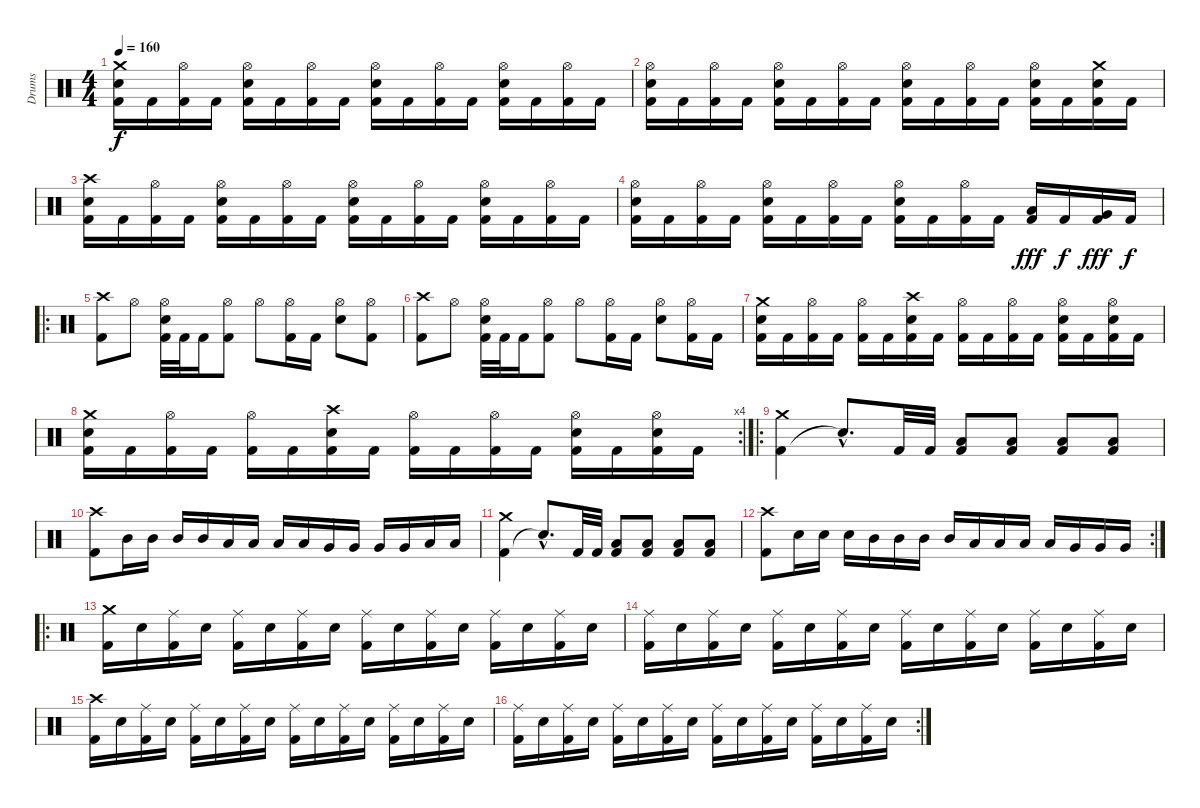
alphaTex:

\track ("Drums" "Drums") {instrument percussion}
\staff {score}
\articulation defaults
\ts (4 4)
\tempo 160
\clef neutral
\ks c
("Kick (hit) 2" "Electric Snare (hit)" "Crash medium (hit)").16{dy f} "Kick (hit) 2".16 ("Kick (hit) 2" "Hi-Hat (open)").16 "Kick (hit) 2".16 ("Kick (hit) 2" "Electric Snare (hit)" "Hi-Hat (open)").16 "Kick (hit) 2".16 ("Kick (hit) 2" "Hi-Hat (open)").16 "Kick (hit) 2".16 ("Kick (hit) 2" "Electric Snare (hit)" "Hi-Hat (open)").16 "Kick (hit) 2".16 ("Kick (hit) 2" "Hi-Hat (open)").16 "Kick (hit) 2".16 ("Kick (hit) 2" "Electric Snare (hit)" "Hi-Hat (open)").16 "Kick (hit) 2".16 ("Kick (hit) 2" "Hi-Hat (open)").16 "Kick (hit) 2".16 |
("Kick (hit) 2" "Electric Snare (hit)" "Hi-Hat (open)").16 "Kick (hit) 2".16 ("Kick (hit) 2" "Hi-Hat (open)").16 "Kick (hit) 2".16 ("Kick (hit) 2" "Electric Snare (hit)" "Hi-Hat (open)").16 "Kick (hit) 2".16 ("Kick (hit) 2" "Hi-Hat (open)").16 "Kick (hit) 2".16 ("Kick (hit) 2" "Electric Snare (hit)" "Hi-Hat (open)").16 "Kick (hit) 2".16 ("Kick (hit) 2" "Hi-Hat (open)").16 "Kick (hit) 2".16 ("Kick (hit) 2" "Electric Snare (hit)" "Hi-Hat (open)").16 "Kick (hit) 2".16 ("Kick (hit) 2" "Electric Snare (hit)" "Crash medium (hit)").16 "Kick (hit) 2".16 |
("Kick (hit) 2" "Electric Snare (hit)" "Crash high (hit)").16 "Kick (hit) 2".16 ("Kick (hit) 2" "Hi-Hat (open)").16 "Kick (hit) 2".16 ("Kick (hit) 2" "Electric Snare (hit)" "Hi-Hat (open)").16 "Kick (hit) 2".16 ("Kick (hit) 2" "Hi-Hat (open)").16 "Kick (hit) 2".16 ("Kick (hit) 2" "Electric Snare (hit)" "Hi-Hat (open)").16 "Kick (hit) 2".16 ("Kick (hit) 2" "Hi-Hat (open)").16 "Kick (hit) 2".16 ("Kick (hit) 2" "Electric Snare (hit)" "Hi-Hat (open)").16 "Kick (hit) 2".16 ("Kick (hit) 2" "Hi-Hat (open)").16 "Kick (hit) 2".16 |
("Kick (hit) 2" "Electric Snare (hit)" "Hi-Hat (open)").16 "Kick (hit) 2".16 ("Kick (hit) 2" "Hi-Hat (open)").16 "Kick (hit) 2".16 ("Kick (hit) 2" "Electric Snare (hit)" "Hi-Hat (open)").16 "Kick (hit) 2".16 ("Kick (hit) 2" "Hi-Hat (open)").16 "Kick (hit) 2".16 ("Kick (hit) 2" "Electric Snare (hit)" "Hi-Hat (open)").16 "Kick (hit) 2".16 ("Kick (hit) 2" "Hi-Hat (open)").16 "Kick (hit) 2".16 ("Kick (hit) 2" "Low Tom (hit)").16{dy fff} "Kick (hit) 2".16{dy f} ("Kick (hit) 2" "Very Low Tom (hit)").16{dy fff} "Kick (hit) 2".16{dy f} |
\ro
("Kick (hit) 2" "Crash high (hit)").8 "Hi-Hat (open)".8 ("Kick (hit) 2" "Electric Snare (hit)" "Hi-Hat (open)").32 "Kick (hit) 2".32 "Kick (hit) 2".16 ("Kick (hit) 2" "Hi-Hat (open)").8 "Hi-Hat (open)".8 ("Kick (hit) 2" "Hi-Hat (open)").16 "Kick (hit) 2".16 ("Electric Snare (hit)" "Hi-Hat (open)").8 ("Kick (hit) 2" "Hi-Hat (open)").8 |
("Kick (hit) 2" "Crash high (hit)").8 "Hi-Hat (open)".8 ("Kick (hit) 2" "Electric Snare (hit)" "Hi-Hat (open)").32 "Kick (hit) 2".32 "Kick (hit) 2".16 ("Kick (hit) 2" "Hi-Hat (open)").8 "Hi-Hat (open)".8 ("Kick (hit) 2" "Hi-Hat (open)").16 "Kick (hit) 2".16 ("Electric Snare (hit)" "Hi-Hat (open)").8 ("Kick (hit) 2" "Hi-Hat (open)").16 "Kick (hit) 2".16 |
("Kick (hit) 2" "Electric Snare (hit)" "Crash medium (hit)").16 "Kick (hit) 2".16 ("Kick (hit) 2" "Hi-Hat (open)").16 "Kick (hit) 2".16 ("Kick (hit) 2" "Hi-Hat (open)").16 "Kick (hit) 2".16 ("Kick (hit) 2" "Electric Snare (hit)" "Crash high (hit)").16 "Kick (hit) 2".16 ("Kick (hit) 2" "Hi-Hat (open)").16 "Kick (hit) 2".16 ("Kick (hit) 2" "Hi-Hat (open)").16 "Kick (hit) 2".16 ("Kick (hit) 2" "Electric Snare (hit)" "Hi-Hat (open)").16 "Kick (hit) 2".16 ("Kick (hit) 2" "Electric Snare (hit)" "Hi-Hat (open)").16 "Kick (hit) 2".16 |
\rc 4
("Kick (hit) 2" "Electric Snare (hit)" "Crash medium (hit)").16 "Kick (hit) 2".16 ("Kick (hit) 2" "Hi-Hat (open)").16 "Kick (hit) 2".16 ("Kick (hit) 2" "Hi-Hat (open)").16 "Kick (hit) 2".16 ("Kick (hit) 2" "Electric Snare (hit)" "Crash high (hit)").16 "Kick (hit) 2".16 ("Kick (hit) 2" "Hi-Hat (open)").16 "Kick (hit) 2".16 ("Kick (hit) 2" "Hi-Hat (open)").16 "Kick (hit) 2".16 ("Kick (hit) 2" "Electric Snare (hit)" "Hi-Hat (open)").16 "Kick (hit) 2".16 ("Kick (hit) 2" "Electric Snare (hit)" "Hi-Hat (open)").16 "Kick (hit) 2".16 |
\ro
("Kick (hit) 2" "Crash medium (hit)").4 "Snare (hit)"{hac t}.8{d} "Kick (hit) 2".32 "Kick (hit) 2".32 ("Kick (hit) 2" "Low Tom (hit)").8 ("Kick (hit) 2" "Low Tom (hit)").8 ("Kick (hit) 2" "Low Tom (hit)").8 ("Kick (hit) 2" "Low Tom (hit)").8 |
("Kick (hit) 2" "Crash high (hit)").8 "Mid Tom (hit)".16 "Mid Tom (hit)".16 "Mid Tom (hit)".16 "Mid Tom (hit)".16 "Low Tom (hit)".16 "Low Tom (hit)".16 "Low Tom (hit)".16 "Low Tom (hit)".16 "Very Low Tom (hit)".16 "Very Low Tom (hit)".16 "Very Low Tom (hit)".16 "Very Low Tom (hit)".16 "Low Floor Tom (hit)".16 "Low Floor Tom (hit)".16 |
("Kick (hit) 2" "Crash medium (hit)").4 "Snare (hit)"{hac t}.8{d} "Kick (hit) 2".32 "Kick (hit) 2".32 ("Kick (hit) 2" "Low Tom (hit)").8 ("Kick (hit) 2" "Low Tom (hit)").8 ("Kick (hit) 2" "Low Tom (hit)").8 ("Kick (hit) 2" "Low Tom (hit)").8 |
\rc 2
("Kick (hit) 2" "Crash high (hit)").8 "Electric Snare (hit)".16 "Electric Snare (hit)".16 "Electric Snare (hit)".16 "Mid Tom (hit)".16 "Mid Tom (hit)".16 "Mid Tom (hit)".16 "Mid Tom (hit)".16 "Low Tom (hit)".16 "Low Tom (hit)".16 "Low Tom (hit)".16 "Low Tom (hit)".16 "Very Low Tom (hit)".16 "Very Low Tom (hit)".16 "Very Low Tom (hit)".16 |
\ro
("Kick (hit) 2" "Crash medium (hit)").16 "Electric Snare (hit)".16 ("Kick (hit) 2" "Ride (middle)").16 "Electric Snare (hit)".16 ("Kick (hit) 2" "Ride (middle)").16 "Electric Snare (hit)".16 ("Kick (hit) 2" "Ride (middle)").16 "Electric Snare (hit)".16 ("Kick (hit) 2" "Ride (middle)").16 "Electric Snare (hit)".16 ("Kick (hit) 2" "Ride (middle)").16 "Electric Snare (hit)".16 ("Kick (hit) 2" "Ride (middle)").16 "Electric Snare (hit)".16 ("Kick (hit) 2" "Ride (middle)").16 "Electric Snare (hit)".16 |
("Kick (hit) 2" "Ride (middle)").16 "Electric Snare (hit)".16 ("Kick (hit) 2" "Ride (middle)").16 "Electric Snare (hit)".16 ("Kick (hit) 2" "Ride (middle)").16 "Electric Snare (hit)".16 ("Kick (hit) 2" "Ride (middle)").16 "Electric Snare (hit)".16 ("Kick (hit) 2" "Ride (middle)").16 "Electric Snare (hit)".16 ("Kick (hit) 2" "Ride (middle)").16 "Electric Snare (hit)".16 ("Kick (hit) 2" "Ride (middle)").16 "Electric Snare (hit)".16 ("Kick (hit) 2" "Ride (middle)").16 "Electric Snare (hit)".16 |
("Kick (hit) 2" "Crash high (hit)").16 "Electric Snare (hit)".16 ("Kick (hit) 2" "Ride (middle)").16 "Electric Snare (hit)".16 ("Kick (hit) 2" "Ride (middle)").16 "Electric Snare (hit)".16 ("Kick (hit) 2" "Ride (middle)").16 "Electric Snare (hit)".16 ("Kick (hit) 2" "Ride (middle)").16 "Electric Snare (hit)".16 ("Kick (hit) 2" "Ride (middle)").16 "Electric Snare (hit)".16 ("Kick (hit) 2" "Ride (middle)").16 "Electric Snare (hit)".16 ("Kick (hit) 2" "Ride (middle)").16 "Electric Snare (hit)".16 |
\rc 2
("Kick (hit) 2" "Ride (middle)").16 "Electric Snare (hit)".16 ("Kick (hit) 2" "Ride (middle)").16 "Electric Snare (hit)".16 ("Kick (hit) 2" "Ride (middle)").16 "Electric Snare (hit)".16 ("Kick (hit) 2" "Ride (middle)").16 "Electric Snare (hit)".16 ("Kick (hit) 2" "Ride (middle)").16 "Electric Snare (hit)".16 ("Kick (hit) 2" "Ride (middle)").16 "Electric Snare (hit)".16 ("Kick (hit) 2" "Ride (middle)").16 "Electric Snare (hit)".16 ("Kick (hit) 2" "Ride (middle)").16 "Electric Snare (hit)".16
